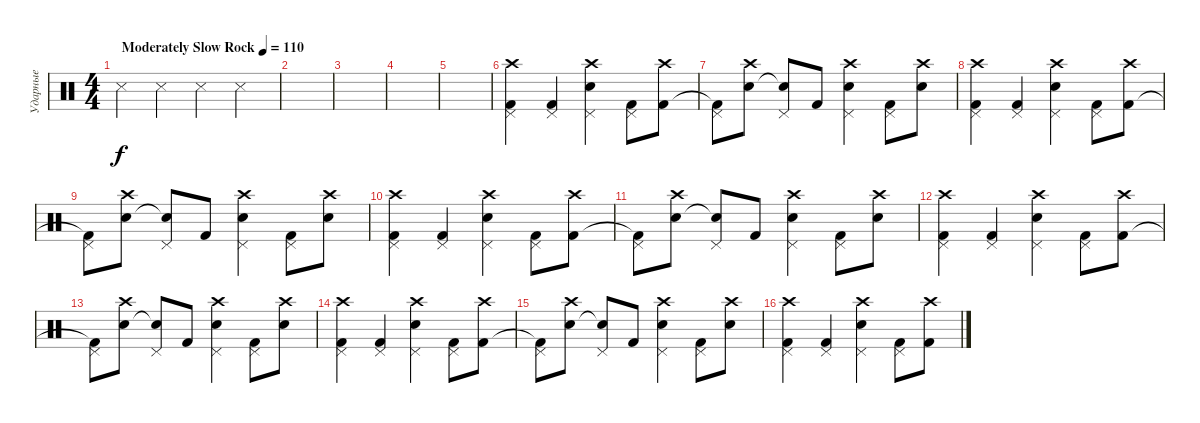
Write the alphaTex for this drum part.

\track ("Ударные" "Ударные") {instrument percussion}
\staff {score}
\articulation defaults
\ts (4 4)
\tempo (110 "Moderately Slow Rock")
\clef neutral
\ks c "Snare (side stick) 3".4{dy f} "Snare (side stick) 3".4 "Snare (side stick) 3".4 "Snare (side stick) 3".4
|
|
|
|
|
("Crash high (hit)" "Pedal Hi-Hat (hit)" "Kick (hit) 2").4 ("Pedal Hi-Hat (hit)" "Kick (hit) 2").4 ("Crash high (hit)" "Pedal Hi-Hat (hit)" "Electric Snare (hit)").4 ("Pedal Hi-Hat (hit)" "Kick (hit) 2").8 ("Crash high (hit)" "Kick (hit) 2").8 |
("Pedal Hi-Hat (hit)" "Kick (hit) 2"{t}).8 ("Crash high (hit)" "Snare (hit) 2").8 ("Pedal Hi-Hat (hit)" "Snare (hit) 2"{t}).8 "Kick (hit) 2".8 ("Crash high (hit)" "Pedal Hi-Hat (hit)" "Electric Snare (hit)").4 ("Pedal Hi-Hat (hit)" "Kick (hit) 2").8 ("Crash high (hit)" "Snare (hit) 2").8 |
("Crash high (hit)" "Pedal Hi-Hat (hit)" "Kick (hit) 2").4 ("Pedal Hi-Hat (hit)" "Kick (hit) 2").4 ("Crash high (hit)" "Pedal Hi-Hat (hit)" "Electric Snare (hit)").4 ("Pedal Hi-Hat (hit)" "Kick (hit) 2").8 ("Crash high (hit)" "Kick (hit) 2").8 |
("Pedal Hi-Hat (hit)" "Kick (hit) 2"{t}).8 ("Crash high (hit)" "Snare (hit) 2").8 ("Pedal Hi-Hat (hit)" "Snare (hit) 2"{t}).8 "Kick (hit) 2".8 ("Crash high (hit)" "Pedal Hi-Hat (hit)" "Electric Snare (hit)").4 ("Pedal Hi-Hat (hit)" "Kick (hit) 2").8 ("Crash high (hit)" "Snare (hit) 2").8 |
("Crash high (hit)" "Pedal Hi-Hat (hit)" "Kick (hit) 2").4 ("Pedal Hi-Hat (hit)" "Kick (hit) 2").4 ("Crash high (hit)" "Pedal Hi-Hat (hit)" "Electric Snare (hit)").4 ("Pedal Hi-Hat (hit)" "Kick (hit) 2").8 ("Crash high (hit)" "Kick (hit) 2").8 |
("Pedal Hi-Hat (hit)" "Kick (hit) 2"{t}).8 ("Crash high (hit)" "Snare (hit) 2").8 ("Pedal Hi-Hat (hit)" "Snare (hit) 2"{t}).8 "Kick (hit) 2".8 ("Crash high (hit)" "Pedal Hi-Hat (hit)" "Electric Snare (hit)").4 ("Pedal Hi-Hat (hit)" "Kick (hit) 2").8 ("Crash high (hit)" "Snare (hit) 2").8 |
("Crash high (hit)" "Pedal Hi-Hat (hit)" "Kick (hit) 2").4 ("Pedal Hi-Hat (hit)" "Kick (hit) 2").4 ("Crash high (hit)" "Pedal Hi-Hat (hit)" "Electric Snare (hit)").4 ("Pedal Hi-Hat (hit)" "Kick (hit) 2").8 ("Crash high (hit)" "Kick (hit) 2").8 |
("Pedal Hi-Hat (hit)" "Kick (hit) 2"{t}).8 ("Crash high (hit)" "Snare (hit) 2").8 ("Pedal Hi-Hat (hit)" "Snare (hit) 2"{t}).8 "Kick (hit) 2".8 ("Crash high (hit)" "Pedal Hi-Hat (hit)" "Electric Snare (hit)").4 ("Pedal Hi-Hat (hit)" "Kick (hit) 2").8 ("Crash high (hit)" "Snare (hit) 2").8 |
("Crash high (hit)" "Pedal Hi-Hat (hit)" "Kick (hit) 2").4 ("Pedal Hi-Hat (hit)" "Kick (hit) 2").4 ("Crash high (hit)" "Pedal Hi-Hat (hit)" "Electric Snare (hit)").4 ("Pedal Hi-Hat (hit)" "Kick (hit) 2").8 ("Crash high (hit)" "Kick (hit) 2").8 |
("Pedal Hi-Hat (hit)" "Kick (hit) 2"{t}).8 ("Crash high (hit)" "Snare (hit) 2").8 ("Pedal Hi-Hat (hit)" "Snare (hit) 2"{t}).8 "Kick (hit) 2".8 ("Crash high (hit)" "Pedal Hi-Hat (hit)" "Electric Snare (hit)").4 ("Pedal Hi-Hat (hit)" "Kick (hit) 2").8 ("Crash high (hit)" "Snare (hit) 2").8 |
("Crash high (hit)" "Pedal Hi-Hat (hit)" "Kick (hit) 2").4 ("Pedal Hi-Hat (hit)" "Kick (hit) 2").4 ("Crash high (hit)" "Pedal Hi-Hat (hit)" "Electric Snare (hit)").4 ("Pedal Hi-Hat (hit)" "Kick (hit) 2").8 ("Crash high (hit)" "Kick (hit) 2").8
